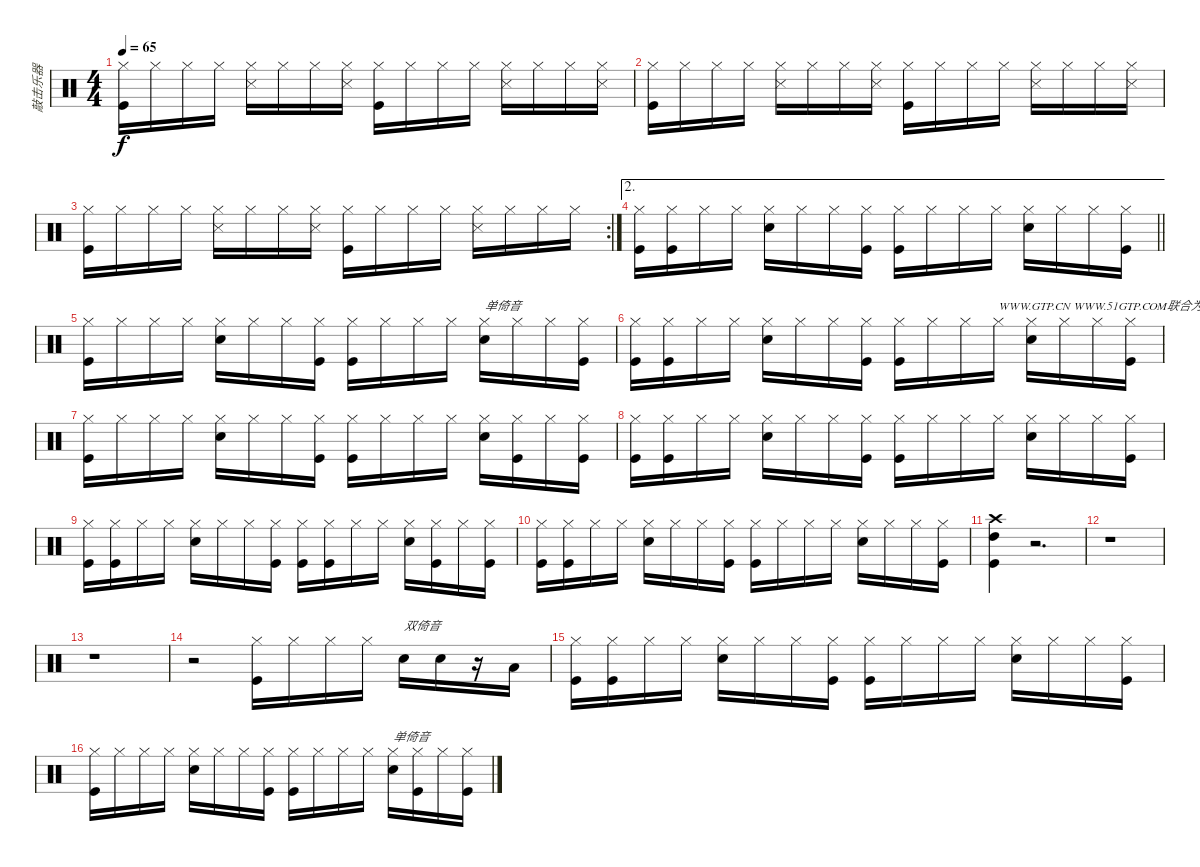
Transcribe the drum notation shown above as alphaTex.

\track ("敲击乐器" "敲击乐器") {instrument percussion}
\staff {score}
\articulation defaults
\ts (4 4)
\tempo 65
\clef neutral
\ks c
("Kick (hit)" "Hi-Hat (closed)").16{dy f} "Hi-Hat (closed)".16 "Hi-Hat (closed)".16 "Hi-Hat (closed)".16 ("Metronome (hit)" "Hi-Hat (closed)").16 "Hi-Hat (closed)".16 "Hi-Hat (closed)".16 ("Snare (side stick) 3" "Hi-Hat (closed)").16 ("Hi-Hat (closed)" "Kick (hit)").16 "Hi-Hat (closed)".16 "Hi-Hat (closed)".16 "Hi-Hat (closed)".16 ("Hi-Hat (closed)" "Metronome (hit)").16 "Hi-Hat (closed)".16 "Hi-Hat (closed)".16 ("Hi-Hat (closed)" "Snare (side stick) 3").16 |
("Kick (hit)" "Hi-Hat (closed)").16 "Hi-Hat (closed)".16 "Hi-Hat (closed)".16 "Hi-Hat (closed)".16 ("Metronome (hit)" "Hi-Hat (closed)").16 "Hi-Hat (closed)".16 "Hi-Hat (closed)".16 ("Snare (side stick) 3" "Hi-Hat (closed)").16 ("Hi-Hat (closed)" "Kick (hit)").16 "Hi-Hat (closed)".16 "Hi-Hat (closed)".16 "Hi-Hat (closed)".16 ("Hi-Hat (closed)" "Metronome (hit)").16 "Hi-Hat (closed)".16 "Hi-Hat (closed)".16 ("Hi-Hat (closed)" "Snare (side stick) 3").16 |
\rc 2
("Kick (hit)" "Hi-Hat (closed)").16 "Hi-Hat (closed)".16 "Hi-Hat (closed)".16 "Hi-Hat (closed)".16 ("Metronome (hit)" "Hi-Hat (closed)").16 "Hi-Hat (closed)".16 "Hi-Hat (closed)".16 ("Snare (side stick) 3" "Hi-Hat (closed)").16 ("Hi-Hat (closed)" "Kick (hit)").16 "Hi-Hat (closed)".16 "Hi-Hat (closed)".16 "Hi-Hat (closed)".16 ("Hi-Hat (closed)" "Metronome (hit)").16 "Hi-Hat (closed)".16 "Hi-Hat (closed)".16 "Hi-Hat (closed)".16 |
\ae 2
\barLineRight lightlight
("Kick (hit)" "Hi-Hat (closed)").16 ("Kick (hit)" "Hi-Hat (closed)").16 "Hi-Hat (closed)".16 "Hi-Hat (closed)".16 ("Electric Snare (hit)" "Hi-Hat (closed)").16 "Hi-Hat (closed)".16 "Hi-Hat (closed)".16 ("Kick (hit)" "Hi-Hat (closed)").16 ("Kick (hit)" "Hi-Hat (closed)").16 "Hi-Hat (closed)".16 "Hi-Hat (closed)".16 "Hi-Hat (closed)".16 ("Electric Snare (hit)" "Hi-Hat (closed)").16 "Hi-Hat (closed)".16 "Hi-Hat (closed)".16 ("Kick (hit)" "Hi-Hat (closed)").16 |
("Kick (hit)" "Hi-Hat (closed)").16 "Hi-Hat (closed)".16 "Hi-Hat (closed)".16 "Hi-Hat (closed)".16 ("Electric Snare (hit)" "Hi-Hat (closed)").16 "Hi-Hat (closed)".16 "Hi-Hat (closed)".16 ("Kick (hit)" "Hi-Hat (closed)").16 ("Kick (hit)" "Hi-Hat (closed)").16 "Hi-Hat (closed)".16 "Hi-Hat (closed)".16 "Hi-Hat (closed)".16 ("Electric Snare (hit)" "Hi-Hat (closed)").16{txt "单倚音"} "Hi-Hat (closed)".16 "Hi-Hat (closed)".16 ("Kick (hit)" "Hi-Hat (closed)").16 |
("Kick (hit)" "Hi-Hat (closed)").16 ("Kick (hit)" "Hi-Hat (closed)").16 "Hi-Hat (closed)".16 "Hi-Hat (closed)".16 ("Electric Snare (hit)" "Hi-Hat (closed)").16 "Hi-Hat (closed)".16 "Hi-Hat (closed)".16 ("Kick (hit)" "Hi-Hat (closed)").16 ("Kick (hit)" "Hi-Hat (closed)").16 "Hi-Hat (closed)".16 "Hi-Hat (closed)".16 "Hi-Hat (closed)".16{txt "WWW.GTP.CN WWW.51GTP.COM联合为您提供优秀的GTP!"} ("Electric Snare (hit)" "Hi-Hat (closed)").16 "Hi-Hat (closed)".16 "Hi-Hat (closed)".16 ("Kick (hit)" "Hi-Hat (closed)").16 |
("Kick (hit)" "Hi-Hat (closed)").16 "Hi-Hat (closed)".16 "Hi-Hat (closed)".16 "Hi-Hat (closed)".16 ("Electric Snare (hit)" "Hi-Hat (closed)").16 "Hi-Hat (closed)".16 "Hi-Hat (closed)".16 ("Kick (hit)" "Hi-Hat (closed)").16 ("Kick (hit)" "Hi-Hat (closed)").16 "Hi-Hat (closed)".16 "Hi-Hat (closed)".16 "Hi-Hat (closed)".16 ("Electric Snare (hit)" "Hi-Hat (closed)").16 ("Kick (hit)" "Hi-Hat (closed)").16 "Hi-Hat (closed)".16 ("Kick (hit)" "Hi-Hat (closed)").16 |
("Kick (hit)" "Hi-Hat (closed)").16 ("Kick (hit)" "Hi-Hat (closed)").16 "Hi-Hat (closed)".16 "Hi-Hat (closed)".16 ("Electric Snare (hit)" "Hi-Hat (closed)").16 "Hi-Hat (closed)".16 "Hi-Hat (closed)".16 ("Kick (hit)" "Hi-Hat (closed)").16 ("Kick (hit)" "Hi-Hat (closed)").16 "Hi-Hat (closed)".16 "Hi-Hat (closed)".16 "Hi-Hat (closed)".16 ("Electric Snare (hit)" "Hi-Hat (closed)").16 "Hi-Hat (closed)".16 "Hi-Hat (closed)".16 ("Kick (hit)" "Hi-Hat (closed)").16 |
("Kick (hit)" "Hi-Hat (closed)").16 ("Kick (hit)" "Hi-Hat (closed)").16 "Hi-Hat (closed)".16 "Hi-Hat (closed)".16 ("Electric Snare (hit)" "Hi-Hat (closed)").16 "Hi-Hat (closed)".16 "Hi-Hat (closed)".16 ("Kick (hit)" "Hi-Hat (closed)").16 ("Kick (hit)" "Hi-Hat (closed)").16 ("Kick (hit)" "Hi-Hat (closed)").16 "Hi-Hat (closed)".16 "Hi-Hat (closed)".16 ("Electric Snare (hit)" "Hi-Hat (closed)").16 ("Kick (hit)" "Hi-Hat (closed)").16 "Hi-Hat (closed)".16 ("Kick (hit)" "Hi-Hat (closed)").16 |
("Kick (hit)" "Hi-Hat (closed)").16 ("Kick (hit)" "Hi-Hat (closed)").16 "Hi-Hat (closed)".16 "Hi-Hat (closed)".16 ("Electric Snare (hit)" "Hi-Hat (closed)").16 "Hi-Hat (closed)".16 "Hi-Hat (closed)".16 ("Kick (hit)" "Hi-Hat (closed)").16 ("Kick (hit)" "Hi-Hat (closed)").16 "Hi-Hat (closed)".16 "Hi-Hat (closed)".16 "Hi-Hat (closed)".16 ("Electric Snare (hit)" "Hi-Hat (closed)").16 "Hi-Hat (closed)".16 "Hi-Hat (closed)".16 ("Kick (hit)" "Hi-Hat (closed)").16 |
("High Tom (hit)" "Crash high (hit)" "Kick (hit)").4 r.2{d} |
r.1 |
r.1 |
r.2 ("Hi-Hat (closed)" "Kick (hit)").16 "Hi-Hat (closed)".16 "Hi-Hat (closed)".16 "Hi-Hat (closed)".16 "Electric Snare (hit)".16{txt "双倚音"} "Electric Snare (hit)".16 r.16 "Low Floor Tom (hit)".16 |
("Kick (hit)" "Hi-Hat (closed)").16 ("Kick (hit)" "Hi-Hat (closed)").16 "Hi-Hat (closed)".16 "Hi-Hat (closed)".16 ("Electric Snare (hit)" "Hi-Hat (closed)").16 "Hi-Hat (closed)".16 "Hi-Hat (closed)".16 ("Kick (hit)" "Hi-Hat (closed)").16 ("Kick (hit)" "Hi-Hat (closed)").16 "Hi-Hat (closed)".16 "Hi-Hat (closed)".16 "Hi-Hat (closed)".16 ("Electric Snare (hit)" "Hi-Hat (closed)").16 "Hi-Hat (closed)".16 "Hi-Hat (closed)".16 ("Kick (hit)" "Hi-Hat (closed)").16 |
("Kick (hit)" "Hi-Hat (closed)").16 "Hi-Hat (closed)".16 "Hi-Hat (closed)".16 "Hi-Hat (closed)".16 ("Electric Snare (hit)" "Hi-Hat (closed)").16 "Hi-Hat (closed)".16 "Hi-Hat (closed)".16 ("Kick (hit)" "Hi-Hat (closed)").16 ("Kick (hit)" "Hi-Hat (closed)").16 "Hi-Hat (closed)".16 "Hi-Hat (closed)".16 "Hi-Hat (closed)".16 ("Electric Snare (hit)" "Hi-Hat (closed)").16{txt "单倚音"} ("Kick (hit)" "Hi-Hat (closed)").16 "Hi-Hat (closed)".16 ("Kick (hit)" "Hi-Hat (closed)").16
